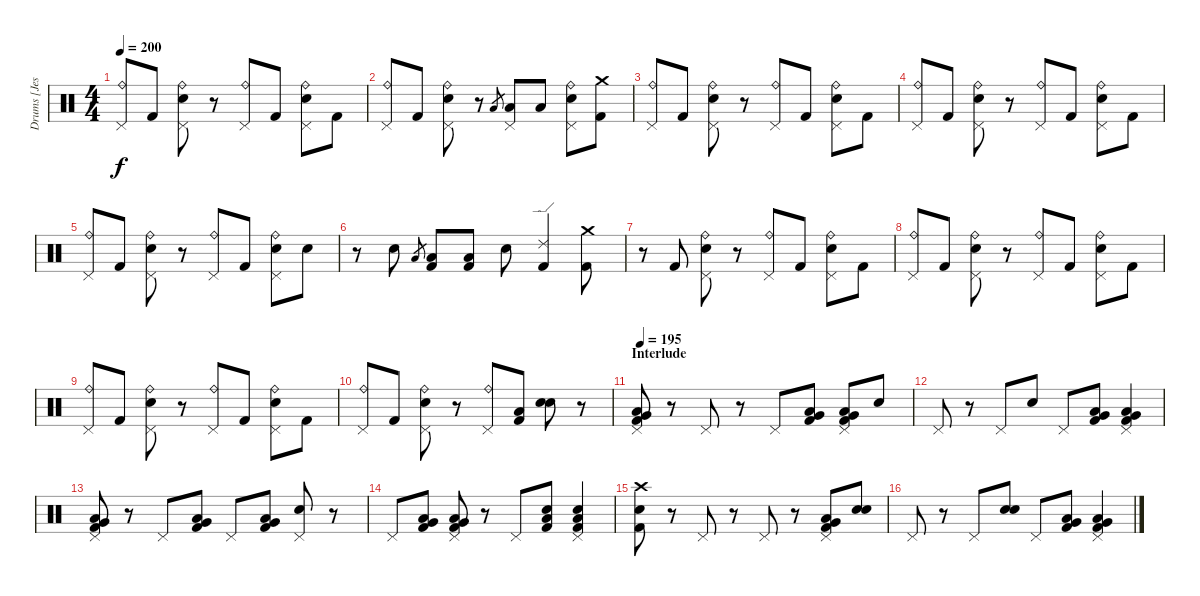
\track ("Drums [Jesse Ingelevics]" "Drums [Jes") {instrument percussion}
\staff {score}
\articulation defaults
\ts (4 4)
\tempo 200
\clef neutral
\ks c
("Ride (bell)" "Pedal Hi-Hat (hit)").8{dy f} "Kick (hit) 2".8 ("Ride (bell)" "Pedal Hi-Hat (hit)" "Electric Snare (hit)").8 r.8 ("Ride (bell)" "Pedal Hi-Hat (hit)").8 "Kick (hit) 2".8 ("Ride (bell)" "Pedal Hi-Hat (hit)" "Electric Snare (hit)").8 "Kick (hit) 2".8 |
("Ride (bell)" "Pedal Hi-Hat (hit)").8 "Kick (hit) 2".8 ("Ride (bell)" "Pedal Hi-Hat (hit)" "Electric Snare (hit)").8 r.8 "Low Tom (hit)".8{gr} ("Pedal Hi-Hat (hit)" "Low Tom (hit)").8 "Low Tom (hit)".8 ("Ride (bell)" "Pedal Hi-Hat (hit)" "Electric Snare (hit)").8 ("Crash medium (hit)" "Kick (hit) 2").8 |
("Ride (bell)" "Pedal Hi-Hat (hit)").8 "Kick (hit) 2".8 ("Ride (bell)" "Pedal Hi-Hat (hit)" "Electric Snare (hit)").8 r.8 ("Ride (bell)" "Pedal Hi-Hat (hit)").8 "Kick (hit) 2".8 ("Ride (bell)" "Pedal Hi-Hat (hit)" "Electric Snare (hit)").8 "Kick (hit) 2".8 |
("Ride (bell)" "Pedal Hi-Hat (hit)").8 "Kick (hit) 2".8 ("Ride (bell)" "Pedal Hi-Hat (hit)" "Electric Snare (hit)").8 r.8 ("Ride (bell)" "Pedal Hi-Hat (hit)").8 "Kick (hit) 2".8 ("Ride (bell)" "Pedal Hi-Hat (hit)" "Electric Snare (hit)").8 "Kick (hit) 2".8 |
("Ride (bell)" "Pedal Hi-Hat (hit)").8 "Kick (hit) 2".8 ("Ride (bell)" "Pedal Hi-Hat (hit)" "Electric Snare (hit)").8 r.8 ("Ride (bell)" "Pedal Hi-Hat (hit)").8 "Kick (hit) 2".8 ("Ride (bell)" "Pedal Hi-Hat (hit)" "Electric Snare (hit)").8 "Electric Snare (hit)".8 |
r.8 "Electric Snare (hit)".8 "Low Tom (hit)".8{gr} ("Low Tom (hit)" "Kick (hit) 2").8 ("Low Tom (hit)" "Kick (hit) 2").8 "Electric Snare (hit)".8 ("Ride (edge) 2" "Kick (hit) 2").4 ("Crash medium (hit)" "Kick (hit) 2").8 |
r.8 "Kick (hit) 2".8 ("Ride (bell)" "Pedal Hi-Hat (hit)" "Electric Snare (hit)").8 r.8 ("Ride (bell)" "Pedal Hi-Hat (hit)").8 "Kick (hit) 2".8 ("Ride (bell)" "Pedal Hi-Hat (hit)" "Electric Snare (hit)").8 "Kick (hit) 2".8 |
("Ride (bell)" "Pedal Hi-Hat (hit)").8 "Kick (hit) 2".8 ("Ride (bell)" "Pedal Hi-Hat (hit)" "Electric Snare (hit)").8 r.8 ("Ride (bell)" "Pedal Hi-Hat (hit)").8 "Kick (hit) 2".8 ("Ride (bell)" "Pedal Hi-Hat (hit)" "Electric Snare (hit)").8 "Kick (hit) 2".8 |
("Ride (bell)" "Pedal Hi-Hat (hit)").8 "Kick (hit) 2".8 ("Ride (bell)" "Pedal Hi-Hat (hit)" "Electric Snare (hit)").8 r.8 ("Ride (bell)" "Pedal Hi-Hat (hit)").8 "Kick (hit) 2".8 ("Ride (bell)" "Pedal Hi-Hat (hit)" "Electric Snare (hit)").8 "Kick (hit) 2".8 |
("Ride (bell)" "Pedal Hi-Hat (hit)").8 "Kick (hit) 2".8 ("Ride (bell)" "Pedal Hi-Hat (hit)" "Electric Snare (hit)").8 r.8 ("Ride (bell)" "Pedal Hi-Hat (hit)").8 ("Low Tom (hit)" "Kick (hit) 2").8 ("Electric Snare (hit)" "Electric Snare (hit)").8 r.8 |
\section ("" "Interlude")
\tempo 195
("Pedal Hi-Hat (hit)" "Very Low Tom (hit)" "Low Floor Tom (hit)" "Kick (hit) 2").8 r.8 "Pedal Hi-Hat (hit)".8 r.8 "Pedal Hi-Hat (hit)".8 ("Very Low Tom (hit)" "Low Floor Tom (hit)" "Kick (hit) 2").8 ("Pedal Hi-Hat (hit)" "Very Low Tom (hit)" "Low Floor Tom (hit)" "Kick (hit) 2").8 "Electric Snare (hit)".8 |
"Pedal Hi-Hat (hit)".8 r.8 "Pedal Hi-Hat (hit)".8 "Electric Snare (hit)".8 "Pedal Hi-Hat (hit)".8 ("Very Low Tom (hit)" "Low Floor Tom (hit)" "Kick (hit) 2").8 ("Pedal Hi-Hat (hit)" "Very Low Tom (hit)" "Low Floor Tom (hit)" "Kick (hit) 2").4 |
("Pedal Hi-Hat (hit)" "Very Low Tom (hit)" "Low Floor Tom (hit)" "Kick (hit) 2").8 r.8 "Pedal Hi-Hat (hit)".8 ("Very Low Tom (hit)" "Low Floor Tom (hit)" "Kick (hit) 2").8 "Pedal Hi-Hat (hit)".8 ("Very Low Tom (hit)" "Low Floor Tom (hit)" "Kick (hit) 2").8 ("Pedal Hi-Hat (hit)" "Electric Snare (hit)").8 r.8 |
"Pedal Hi-Hat (hit)".8 ("Very Low Tom (hit)" "Low Floor Tom (hit)" "Kick (hit) 2").8 ("Pedal Hi-Hat (hit)" "Very Low Tom (hit)" "Low Floor Tom (hit)" "Kick (hit) 2").8 r.8 "Pedal Hi-Hat (hit)".8 ("Electric Snare (hit)" "Low Floor Tom (hit)" "Kick (hit) 2").8 ("Pedal Hi-Hat (hit)" "Electric Snare (hit)" "Low Floor Tom (hit)" "Kick (hit) 2").4 |
("Crash high (hit)" "Electric Snare (hit)" "Kick (hit) 2").8 r.8 "Pedal Hi-Hat (hit)".8 r.8 "Pedal Hi-Hat (hit)".8 r.8 ("Pedal Hi-Hat (hit)" "Very Low Tom (hit)" "Low Floor Tom (hit)" "Kick (hit) 2").8 ("Electric Snare (hit)" "Electric Snare (hit)").8 |
"Pedal Hi-Hat (hit)".8 r.8 "Pedal Hi-Hat (hit)".8 ("Electric Snare (hit)" "Electric Snare (hit)").8 "Pedal Hi-Hat (hit)".8 ("Very Low Tom (hit)" "Low Floor Tom (hit)" "Kick (hit) 2").8 ("Pedal Hi-Hat (hit)" "Very Low Tom (hit)" "Low Floor Tom (hit)" "Kick (hit) 2").4
